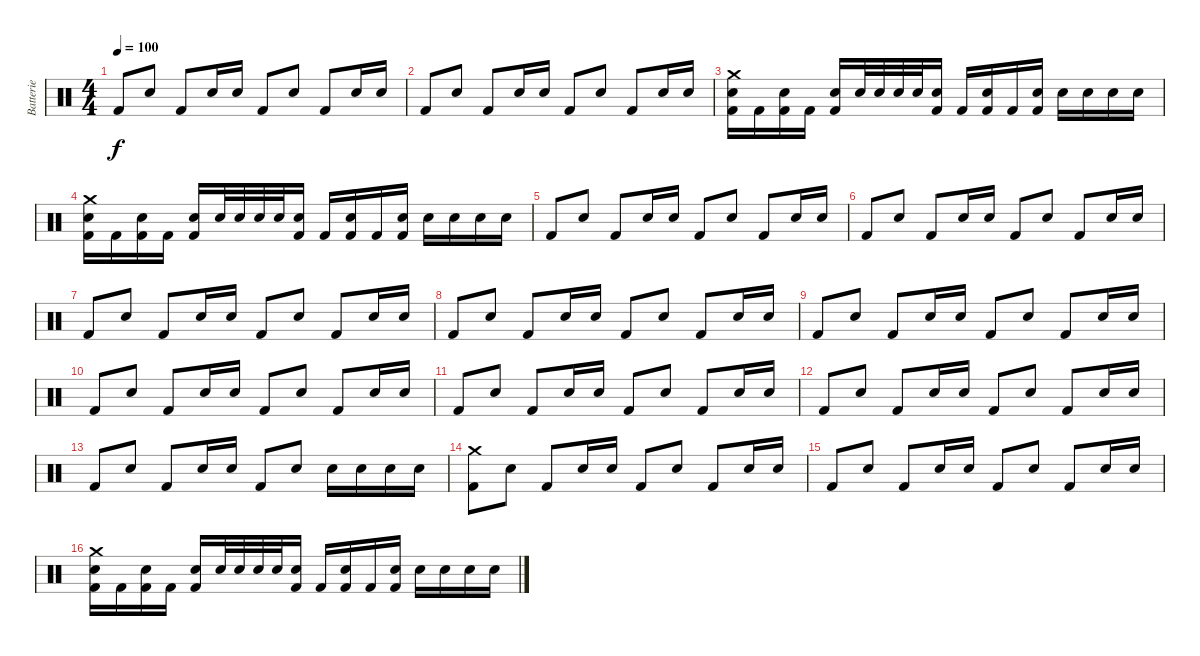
\track ("Batterie" "Batterie") {instrument percussion}
\staff {score}
\articulation defaults
\ts (4 4)
\tempo 100
\clef neutral
\ks c "Kick (hit) 2".8{dy f} "Electric Snare (hit)".8 "Kick (hit) 2".8 "Electric Snare (hit)".16 "Electric Snare (hit)".16 "Kick (hit) 2".8 "Electric Snare (hit)".8 "Kick (hit) 2".8 "Electric Snare (hit)".16 "Electric Snare (hit)".16
|
"Kick (hit) 2".8 "Electric Snare (hit)".8 "Kick (hit) 2".8 "Electric Snare (hit)".16 "Electric Snare (hit)".16 "Kick (hit) 2".8 "Electric Snare (hit)".8 "Kick (hit) 2".8 "Electric Snare (hit)".16 "Electric Snare (hit)".16 |
("Kick (hit) 2" "Electric Snare (hit)" "Crash medium (hit)").16 "Kick (hit) 2".16 ("Kick (hit) 2" "Electric Snare (hit)").16 "Kick (hit) 2".16 ("Kick (hit) 2" "Electric Snare (hit)").16 "Electric Snare (hit)".32 "Electric Snare (hit)".32 "Electric Snare (hit)".32 "Electric Snare (hit)".32 ("Kick (hit) 2" "Electric Snare (hit)").16 "Kick (hit) 2".16 ("Kick (hit) 2" "Electric Snare (hit)").16 "Kick (hit) 2".16 ("Kick (hit) 2" "Electric Snare (hit)").16 "Electric Snare (hit)".16 "Electric Snare (hit)".16 "Electric Snare (hit)".16 "Electric Snare (hit)".16 |
("Kick (hit) 2" "Electric Snare (hit)" "Crash medium (hit)").16 "Kick (hit) 2".16 ("Kick (hit) 2" "Electric Snare (hit)").16 "Kick (hit) 2".16 ("Kick (hit) 2" "Electric Snare (hit)").16 "Electric Snare (hit)".32 "Electric Snare (hit)".32 "Electric Snare (hit)".32 "Electric Snare (hit)".32 ("Kick (hit) 2" "Electric Snare (hit)").16 "Kick (hit) 2".16 ("Kick (hit) 2" "Electric Snare (hit)").16 "Kick (hit) 2".16 ("Kick (hit) 2" "Electric Snare (hit)").16 "Electric Snare (hit)".16 "Electric Snare (hit)".16 "Electric Snare (hit)".16 "Electric Snare (hit)".16 |
"Kick (hit) 2".8 "Electric Snare (hit)".8 "Kick (hit) 2".8 "Electric Snare (hit)".16 "Electric Snare (hit)".16 "Kick (hit) 2".8 "Electric Snare (hit)".8 "Kick (hit) 2".8 "Electric Snare (hit)".16 "Electric Snare (hit)".16 |
"Kick (hit) 2".8 "Electric Snare (hit)".8 "Kick (hit) 2".8 "Electric Snare (hit)".16 "Electric Snare (hit)".16 "Kick (hit) 2".8 "Electric Snare (hit)".8 "Kick (hit) 2".8 "Electric Snare (hit)".16 "Electric Snare (hit)".16 |
"Kick (hit) 2".8 "Electric Snare (hit)".8 "Kick (hit) 2".8 "Electric Snare (hit)".16 "Electric Snare (hit)".16 "Kick (hit) 2".8 "Electric Snare (hit)".8 "Kick (hit) 2".8 "Electric Snare (hit)".16 "Electric Snare (hit)".16 |
"Kick (hit) 2".8 "Electric Snare (hit)".8 "Kick (hit) 2".8 "Electric Snare (hit)".16 "Electric Snare (hit)".16 "Kick (hit) 2".8 "Electric Snare (hit)".8 "Kick (hit) 2".8 "Electric Snare (hit)".16 "Electric Snare (hit)".16 |
"Kick (hit) 2".8 "Electric Snare (hit)".8 "Kick (hit) 2".8 "Electric Snare (hit)".16 "Electric Snare (hit)".16 "Kick (hit) 2".8 "Electric Snare (hit)".8 "Kick (hit) 2".8 "Electric Snare (hit)".16 "Electric Snare (hit)".16 |
"Kick (hit) 2".8 "Electric Snare (hit)".8 "Kick (hit) 2".8 "Electric Snare (hit)".16 "Electric Snare (hit)".16 "Kick (hit) 2".8 "Electric Snare (hit)".8 "Kick (hit) 2".8 "Electric Snare (hit)".16 "Electric Snare (hit)".16 |
"Kick (hit) 2".8 "Electric Snare (hit)".8 "Kick (hit) 2".8 "Electric Snare (hit)".16 "Electric Snare (hit)".16 "Kick (hit) 2".8 "Electric Snare (hit)".8 "Kick (hit) 2".8 "Electric Snare (hit)".16 "Electric Snare (hit)".16 |
"Kick (hit) 2".8 "Electric Snare (hit)".8 "Kick (hit) 2".8 "Electric Snare (hit)".16 "Electric Snare (hit)".16 "Kick (hit) 2".8 "Electric Snare (hit)".8 "Kick (hit) 2".8 "Electric Snare (hit)".16 "Electric Snare (hit)".16 |
"Kick (hit) 2".8 "Electric Snare (hit)".8 "Kick (hit) 2".8 "Electric Snare (hit)".16 "Electric Snare (hit)".16 "Kick (hit) 2".8 "Electric Snare (hit)".8 "Electric Snare (hit)".16 "Electric Snare (hit)".16 "Electric Snare (hit)".16 "Electric Snare (hit)".16 |
("Kick (hit) 2" "Crash medium (hit)").8 "Electric Snare (hit)".8 "Kick (hit) 2".8 "Electric Snare (hit)".16 "Electric Snare (hit)".16 "Kick (hit) 2".8 "Electric Snare (hit)".8 "Kick (hit) 2".8 "Electric Snare (hit)".16 "Electric Snare (hit)".16 |
"Kick (hit) 2".8 "Electric Snare (hit)".8 "Kick (hit) 2".8 "Electric Snare (hit)".16 "Electric Snare (hit)".16 "Kick (hit) 2".8 "Electric Snare (hit)".8 "Kick (hit) 2".8 "Electric Snare (hit)".16 "Electric Snare (hit)".16 |
("Kick (hit) 2" "Electric Snare (hit)" "Crash medium (hit)").16 "Kick (hit) 2".16 ("Kick (hit) 2" "Electric Snare (hit)").16 "Kick (hit) 2".16 ("Kick (hit) 2" "Electric Snare (hit)").16 "Electric Snare (hit)".32 "Electric Snare (hit)".32 "Electric Snare (hit)".32 "Electric Snare (hit)".32 ("Kick (hit) 2" "Electric Snare (hit)").16 "Kick (hit) 2".16 ("Kick (hit) 2" "Electric Snare (hit)").16 "Kick (hit) 2".16 ("Kick (hit) 2" "Electric Snare (hit)").16 "Electric Snare (hit)".16 "Electric Snare (hit)".16 "Electric Snare (hit)".16 "Electric Snare (hit)".16
